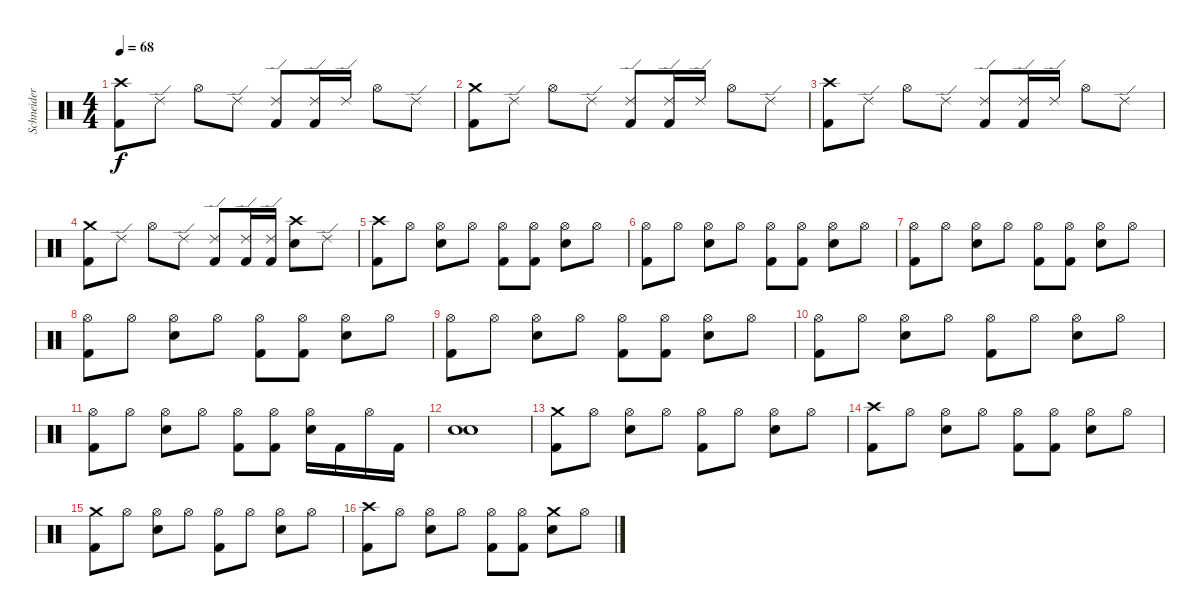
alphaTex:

\track ("Schneider" "Schneider") {instrument percussion}
\staff {score}
\articulation defaults
\ts (4 4)
\tempo 68
\clef neutral
\ks c
("Crash high (hit)" "Kick (hit) 2").8{dy f} "Ride (edge) 2".8 "Hi-Hat (open)".8 "Ride (edge) 2".8 ("Ride (edge) 2" "Kick (hit) 2").8 ("Ride (edge) 2" "Kick (hit) 2").16 "Ride (edge) 2".16 "Hi-Hat (open)".8 "Ride (edge) 2".8 |
("Crash medium (hit)" "Kick (hit) 2").8 "Ride (edge) 2".8 "Hi-Hat (open)".8 "Ride (edge) 2".8 ("Ride (edge) 2" "Kick (hit) 2").8 ("Ride (edge) 2" "Kick (hit) 2").16 "Ride (edge) 2".16 "Hi-Hat (open)".8 "Ride (edge) 2".8 |
("Crash high (hit)" "Kick (hit) 2").8 "Ride (edge) 2".8 "Hi-Hat (open)".8 "Ride (edge) 2".8 ("Ride (edge) 2" "Kick (hit) 2").8 ("Ride (edge) 2" "Kick (hit) 2").16 "Ride (edge) 2".16 "Hi-Hat (open)".8 "Ride (edge) 2".8 |
("Crash medium (hit)" "Kick (hit) 2").8 "Ride (edge) 2".8 "Hi-Hat (open)".8 "Ride (edge) 2".8 ("Ride (edge) 2" "Kick (hit) 2").8 ("Ride (edge) 2" "Kick (hit) 2").16 ("Ride (edge) 2" "Kick (hit) 2").16 ("Crash high (hit)" "Electric Snare (hit)").8 "Ride (edge) 2".8 |
("Crash high (hit)" "Kick (hit) 2").8 "Hi-Hat (open)".8 ("Hi-Hat (open)" "Electric Snare (hit)").8 "Hi-Hat (open)".8 ("Hi-Hat (open)" "Kick (hit) 2").8 ("Hi-Hat (open)" "Kick (hit) 2").8 ("Hi-Hat (open)" "Electric Snare (hit)").8 "Hi-Hat (open)".8 |
("Hi-Hat (open)" "Kick (hit) 2").8 "Hi-Hat (open)".8 ("Hi-Hat (open)" "Electric Snare (hit)").8 "Hi-Hat (open)".8 ("Hi-Hat (open)" "Kick (hit) 2").8 ("Hi-Hat (open)" "Kick (hit) 2").8 ("Hi-Hat (open)" "Electric Snare (hit)").8 "Hi-Hat (open)".8 |
("Hi-Hat (open)" "Kick (hit) 2").8 "Hi-Hat (open)".8 ("Hi-Hat (open)" "Electric Snare (hit)").8 "Hi-Hat (open)".8 ("Hi-Hat (open)" "Kick (hit) 2").8 ("Hi-Hat (open)" "Kick (hit) 2").8 ("Hi-Hat (open)" "Electric Snare (hit)").8 "Hi-Hat (open)".8 |
("Hi-Hat (open)" "Kick (hit) 2").8 "Hi-Hat (open)".8 ("Hi-Hat (open)" "Electric Snare (hit)").8 "Hi-Hat (open)".8 ("Hi-Hat (open)" "Kick (hit) 2").8 ("Hi-Hat (open)" "Kick (hit) 2").8 ("Hi-Hat (open)" "Electric Snare (hit)").8 "Hi-Hat (open)".8 |
("Hi-Hat (open)" "Kick (hit) 2").8 "Hi-Hat (open)".8 ("Hi-Hat (open)" "Electric Snare (hit)").8 "Hi-Hat (open)".8 ("Hi-Hat (open)" "Kick (hit) 2").8 ("Hi-Hat (open)" "Kick (hit) 2").8 ("Hi-Hat (open)" "Electric Snare (hit)").8 "Hi-Hat (open)".8 |
("Hi-Hat (open)" "Kick (hit) 2").8 "Hi-Hat (open)".8 ("Hi-Hat (open)" "Electric Snare (hit)").8 "Hi-Hat (open)".8 ("Hi-Hat (open)" "Kick (hit) 2").8 "Hi-Hat (open)".8 ("Hi-Hat (open)" "Electric Snare (hit)").8 "Hi-Hat (open)".8 |
("Hi-Hat (open)" "Kick (hit) 2").8 "Hi-Hat (open)".8 ("Hi-Hat (open)" "Electric Snare (hit)").8 "Hi-Hat (open)".8 ("Hi-Hat (open)" "Kick (hit) 2").8 ("Hi-Hat (open)" "Kick (hit) 2").8 ("Hi-Hat (open)" "Electric Snare (hit)").16 "Kick (hit) 2".16 "Hi-Hat (open)".16 "Kick (hit) 2".16 |
("Electric Snare (hit)" "Electric Snare (hit)").1 |
("Crash medium (hit)" "Kick (hit) 2").8 "Hi-Hat (open)".8 ("Hi-Hat (open)" "Electric Snare (hit)").8 "Hi-Hat (open)".8 ("Hi-Hat (open)" "Kick (hit) 2").8 "Hi-Hat (open)".8 ("Hi-Hat (open)" "Electric Snare (hit)").8 "Hi-Hat (open)".8 |
("Crash high (hit)" "Kick (hit) 2").8 "Hi-Hat (open)".8 ("Hi-Hat (open)" "Electric Snare (hit)").8 "Hi-Hat (open)".8 ("Hi-Hat (open)" "Kick (hit) 2").8 ("Hi-Hat (open)" "Kick (hit) 2").8 ("Hi-Hat (open)" "Electric Snare (hit)").8 "Hi-Hat (open)".8 |
("Crash medium (hit)" "Kick (hit) 2").8 "Hi-Hat (open)".8 ("Hi-Hat (open)" "Electric Snare (hit)").8 "Hi-Hat (open)".8 ("Hi-Hat (open)" "Kick (hit) 2").8 "Hi-Hat (open)".8 ("Hi-Hat (open)" "Electric Snare (hit)").8 "Hi-Hat (open)".8 |
("Crash high (hit)" "Kick (hit) 2").8 "Hi-Hat (open)".8 ("Hi-Hat (open)" "Electric Snare (hit)").8 "Hi-Hat (open)".8 ("Hi-Hat (open)" "Kick (hit) 2").8 ("Hi-Hat (open)" "Kick (hit) 2").8 ("Crash medium (hit)" "Electric Snare (hit)").8 "Hi-Hat (open)".8
